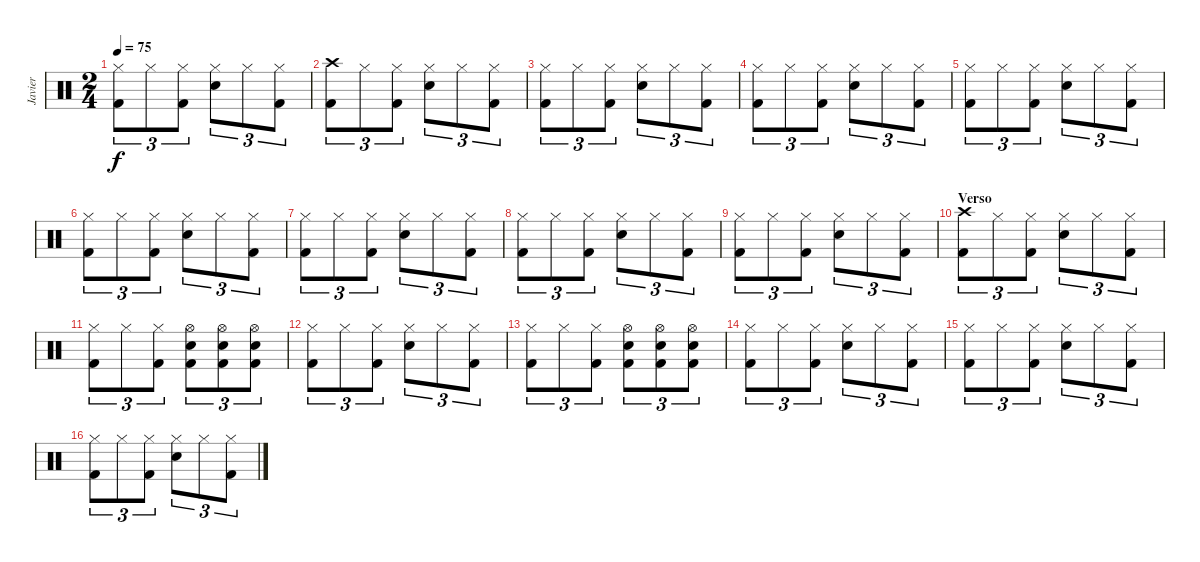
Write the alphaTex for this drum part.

\track ("Javier" "Javier") {instrument percussion}
\staff {score}
\articulation defaults
\ts (2 4)
\tempo 75
\clef neutral
\ks c
("Hi-Hat (closed)" "Kick (hit) 2").8{tu (3 2) dy f} "Hi-Hat (closed)".8{tu (3 2)} ("Hi-Hat (closed)" "Kick (hit) 2").8{tu (3 2)} ("Hi-Hat (closed)" "Snare (hit) 2").8{tu (3 2)} "Hi-Hat (closed)".8{tu (3 2)} ("Hi-Hat (closed)" "Kick (hit) 2").8{tu (3 2)} |
("Crash high (hit)" "Kick (hit) 2").8{tu (3 2)} "Hi-Hat (closed)".8{tu (3 2)} ("Hi-Hat (closed)" "Kick (hit) 2").8{tu (3 2)} ("Hi-Hat (closed)" "Snare (hit) 2").8{tu (3 2)} "Hi-Hat (closed)".8{tu (3 2)} ("Hi-Hat (closed)" "Kick (hit) 2").8{tu (3 2)} |
("Hi-Hat (closed)" "Kick (hit) 2").8{tu (3 2)} "Hi-Hat (closed)".8{tu (3 2)} ("Hi-Hat (closed)" "Kick (hit) 2").8{tu (3 2)} ("Hi-Hat (closed)" "Snare (hit) 2").8{tu (3 2)} "Hi-Hat (closed)".8{tu (3 2)} ("Hi-Hat (closed)" "Kick (hit) 2").8{tu (3 2)} |
("Hi-Hat (closed)" "Kick (hit) 2").8{tu (3 2)} "Hi-Hat (closed)".8{tu (3 2)} ("Hi-Hat (closed)" "Kick (hit) 2").8{tu (3 2)} ("Hi-Hat (closed)" "Snare (hit) 2").8{tu (3 2)} "Hi-Hat (closed)".8{tu (3 2)} ("Hi-Hat (closed)" "Kick (hit) 2").8{tu (3 2)} |
("Hi-Hat (closed)" "Kick (hit) 2").8{tu (3 2)} "Hi-Hat (closed)".8{tu (3 2)} ("Hi-Hat (closed)" "Kick (hit) 2").8{tu (3 2)} ("Hi-Hat (closed)" "Snare (hit) 2").8{tu (3 2)} "Hi-Hat (closed)".8{tu (3 2)} ("Hi-Hat (closed)" "Kick (hit) 2").8{tu (3 2)} |
("Hi-Hat (closed)" "Kick (hit) 2").8{tu (3 2)} "Hi-Hat (closed)".8{tu (3 2)} ("Hi-Hat (closed)" "Kick (hit) 2").8{tu (3 2)} ("Hi-Hat (closed)" "Snare (hit) 2").8{tu (3 2)} "Hi-Hat (closed)".8{tu (3 2)} ("Hi-Hat (closed)" "Kick (hit) 2").8{tu (3 2)} |
("Hi-Hat (closed)" "Kick (hit) 2").8{tu (3 2)} "Hi-Hat (closed)".8{tu (3 2)} ("Hi-Hat (closed)" "Kick (hit) 2").8{tu (3 2)} ("Hi-Hat (closed)" "Snare (hit) 2").8{tu (3 2)} "Hi-Hat (closed)".8{tu (3 2)} ("Hi-Hat (closed)" "Kick (hit) 2").8{tu (3 2)} |
("Hi-Hat (closed)" "Kick (hit) 2").8{tu (3 2)} "Hi-Hat (closed)".8{tu (3 2)} ("Hi-Hat (closed)" "Kick (hit) 2").8{tu (3 2)} ("Hi-Hat (closed)" "Snare (hit) 2").8{tu (3 2)} "Hi-Hat (closed)".8{tu (3 2)} ("Hi-Hat (closed)" "Kick (hit) 2").8{tu (3 2)} |
("Hi-Hat (closed)" "Kick (hit) 2").8{tu (3 2)} "Hi-Hat (closed)".8{tu (3 2)} ("Hi-Hat (closed)" "Kick (hit) 2").8{tu (3 2)} ("Hi-Hat (closed)" "Snare (hit) 2").8{tu (3 2)} "Hi-Hat (closed)".8{tu (3 2)} ("Hi-Hat (closed)" "Kick (hit) 2").8{tu (3 2)} |
\section ("" "Verso")
("Crash high (hit)" "Kick (hit) 2").8{tu (3 2)} "Hi-Hat (closed)".8{tu (3 2)} ("Hi-Hat (closed)" "Kick (hit) 2").8{tu (3 2)} ("Hi-Hat (closed)" "Snare (hit) 2").8{tu (3 2)} "Hi-Hat (closed)".8{tu (3 2)} ("Hi-Hat (closed)" "Kick (hit) 2").8{tu (3 2)} |
("Hi-Hat (closed)" "Kick (hit) 2").8{tu (3 2)} "Hi-Hat (closed)".8{tu (3 2)} ("Hi-Hat (closed)" "Kick (hit) 2").8{tu (3 2)} ("Hi-Hat (open)" "Snare (hit) 2" "Kick (hit) 2").8{tu (3 2)} ("Hi-Hat (open)" "Snare (hit) 2" "Kick (hit) 2").8{tu (3 2)} ("Hi-Hat (open)" "Snare (hit) 2" "Kick (hit) 2").8{tu (3 2)} |
("Hi-Hat (closed)" "Kick (hit) 2").8{tu (3 2)} "Hi-Hat (closed)".8{tu (3 2)} ("Hi-Hat (closed)" "Kick (hit) 2").8{tu (3 2)} ("Hi-Hat (closed)" "Snare (hit) 2").8{tu (3 2)} "Hi-Hat (closed)".8{tu (3 2)} ("Hi-Hat (closed)" "Kick (hit) 2").8{tu (3 2)} |
("Hi-Hat (closed)" "Kick (hit) 2").8{tu (3 2)} "Hi-Hat (closed)".8{tu (3 2)} ("Hi-Hat (closed)" "Kick (hit) 2").8{tu (3 2)} ("Hi-Hat (open)" "Snare (hit) 2" "Kick (hit) 2").8{tu (3 2)} ("Hi-Hat (open)" "Snare (hit) 2" "Kick (hit) 2").8{tu (3 2)} ("Hi-Hat (open)" "Snare (hit) 2" "Kick (hit) 2").8{tu (3 2)} |
("Hi-Hat (closed)" "Kick (hit) 2").8{tu (3 2)} "Hi-Hat (closed)".8{tu (3 2)} ("Hi-Hat (closed)" "Kick (hit) 2").8{tu (3 2)} ("Hi-Hat (closed)" "Snare (hit) 2").8{tu (3 2)} "Hi-Hat (closed)".8{tu (3 2)} ("Hi-Hat (closed)" "Kick (hit) 2").8{tu (3 2)} |
("Hi-Hat (closed)" "Kick (hit) 2").8{tu (3 2)} "Hi-Hat (closed)".8{tu (3 2)} ("Hi-Hat (closed)" "Kick (hit) 2").8{tu (3 2)} ("Hi-Hat (closed)" "Snare (hit) 2").8{tu (3 2)} "Hi-Hat (closed)".8{tu (3 2)} ("Hi-Hat (closed)" "Kick (hit) 2").8{tu (3 2)} |
("Hi-Hat (closed)" "Kick (hit) 2").8{tu (3 2)} "Hi-Hat (closed)".8{tu (3 2)} ("Hi-Hat (closed)" "Kick (hit) 2").8{tu (3 2)} ("Hi-Hat (closed)" "Snare (hit) 2").8{tu (3 2)} "Hi-Hat (closed)".8{tu (3 2)} ("Hi-Hat (closed)" "Kick (hit) 2").8{tu (3 2)}
